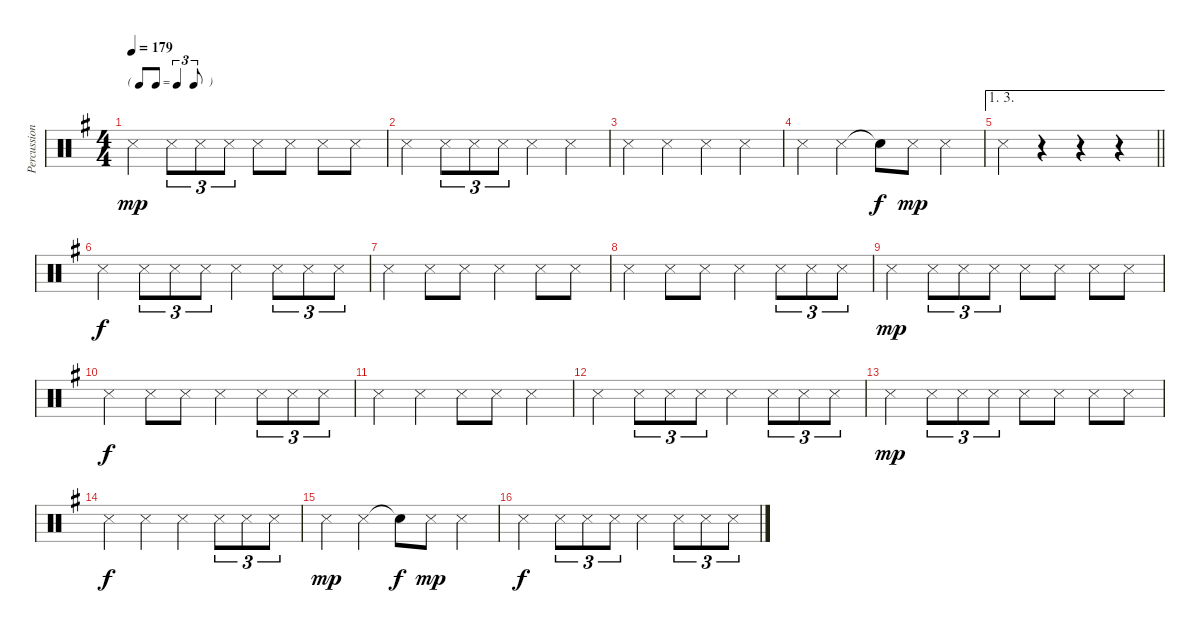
\track ("Percussion" "Percussion") {instrument percussion}
\staff {score}
\articulation defaults
\ts (4 4)
\tf triplet8th
\tempo 179
\clef neutral
\ks g "Snare (side stick) 3".4{dy mp} "Snare (side stick) 3".8{tu (3 2)} "Snare (side stick) 3".8{tu (3 2)} "Snare (side stick) 3".8{tu (3 2)} "Snare (side stick) 3".8 "Snare (side stick) 3".8 "Snare (side stick) 3".8 "Snare (side stick) 3".8
|
"Snare (side stick) 3".4 "Snare (side stick) 3".8{tu (3 2)} "Snare (side stick) 3".8{tu (3 2)} "Snare (side stick) 3".8{tu (3 2)} "Snare (side stick) 3".4 "Snare (side stick) 3".4 |
"Snare (side stick) 3".4 "Snare (side stick) 3".4 "Snare (side stick) 3".4 "Snare (side stick) 3".4 |
"Snare (side stick) 3".4 "Snare (side stick) 3".4 "Snare (hit)"{t}.8{dy f} "Snare (side stick) 3".8{dy mp} "Snare (side stick) 3".4 |
\ae (1 3)
\barLineRight lightlight "Snare (side stick) 3".4
r.4 r.4 r.4 |
"Snare (side stick) 3".4{dy f} "Snare (side stick) 3".8{tu (3 2)} "Snare (side stick) 3".8{tu (3 2)} "Snare (side stick) 3".8{tu (3 2)} "Snare (side stick) 3".4 "Snare (side stick) 3".8{tu (3 2)} "Snare (side stick) 3".8{tu (3 2)} "Snare (side stick) 3".8{tu (3 2)} |
"Snare (side stick) 3".4 "Snare (side stick) 3".8 "Snare (side stick) 3".8 "Snare (side stick) 3".4 "Snare (side stick) 3".8 "Snare (side stick) 3".8 |
"Snare (side stick) 3".4 "Snare (side stick) 3".8 "Snare (side stick) 3".8 "Snare (side stick) 3".4 "Snare (side stick) 3".8{tu (3 2)} "Snare (side stick) 3".8{tu (3 2)} "Snare (side stick) 3".8{tu (3 2)} |
"Snare (side stick) 3".4{dy mp} "Snare (side stick) 3".8{tu (3 2)} "Snare (side stick) 3".8{tu (3 2)} "Snare (side stick) 3".8{tu (3 2)} "Snare (side stick) 3".8 "Snare (side stick) 3".8 "Snare (side stick) 3".8 "Snare (side stick) 3".8 |
"Snare (side stick) 3".4{dy f} "Snare (side stick) 3".8 "Snare (side stick) 3".8 "Snare (side stick) 3".4 "Snare (side stick) 3".8{tu (3 2)} "Snare (side stick) 3".8{tu (3 2)} "Snare (side stick) 3".8{tu (3 2)} |
"Snare (side stick) 3".4 "Snare (side stick) 3".4 "Snare (side stick) 3".8 "Snare (side stick) 3".8 "Snare (side stick) 3".4 |
"Snare (side stick) 3".4 "Snare (side stick) 3".8{tu (3 2)} "Snare (side stick) 3".8{tu (3 2)} "Snare (side stick) 3".8{tu (3 2)} "Snare (side stick) 3".4 "Snare (side stick) 3".8{tu (3 2)} "Snare (side stick) 3".8{tu (3 2)} "Snare (side stick) 3".8{tu (3 2)} |
"Snare (side stick) 3".4{dy mp} "Snare (side stick) 3".8{tu (3 2)} "Snare (side stick) 3".8{tu (3 2)} "Snare (side stick) 3".8{tu (3 2)} "Snare (side stick) 3".8 "Snare (side stick) 3".8 "Snare (side stick) 3".8 "Snare (side stick) 3".8 |
"Snare (side stick) 3".4{dy f} "Snare (side stick) 3".4 "Snare (side stick) 3".4 "Snare (side stick) 3".8{tu (3 2)} "Snare (side stick) 3".8{tu (3 2)} "Snare (side stick) 3".8{tu (3 2)} |
"Snare (side stick) 3".4{dy mp} "Snare (side stick) 3".4 "Snare (hit)"{t}.8{dy f} "Snare (side stick) 3".8{dy mp} "Snare (side stick) 3".4 |
"Snare (side stick) 3".4{dy f} "Snare (side stick) 3".8{tu (3 2)} "Snare (side stick) 3".8{tu (3 2)} "Snare (side stick) 3".8{tu (3 2)} "Snare (side stick) 3".4 "Snare (side stick) 3".8{tu (3 2)} "Snare (side stick) 3".8{tu (3 2)} "Snare (side stick) 3".8{tu (3 2)}
